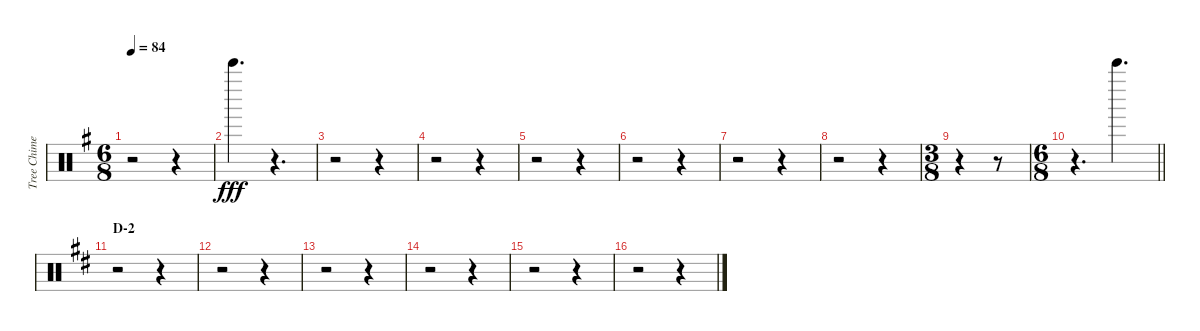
\track ("Tree Chime" "Tree Chime") {instrument percussion}
\staff {score}
\articulation defaults
\ts (6 8)
\tempo 84
\clef neutral
\ks g
r.2{dy fff} r.4 |
"Bell Tree (hit)".4{d} r.4{d} |
r.2 r.4 |
r.2 r.4 |
r.2 r.4 |
r.2 r.4 |
r.2 r.4 |
r.2 r.4 |
\ts (3 8)
r.4 r.8 |
\ts (6 8)
\barLineRight lightlight
r.4{d} "Bell Tree (hit)".4{d} |
\section ("" "D-2")
\ks d
r.2 r.4 |
r.2 r.4 |
r.2 r.4 |
r.2 r.4 |
r.2 r.4 |
r.2 r.4
